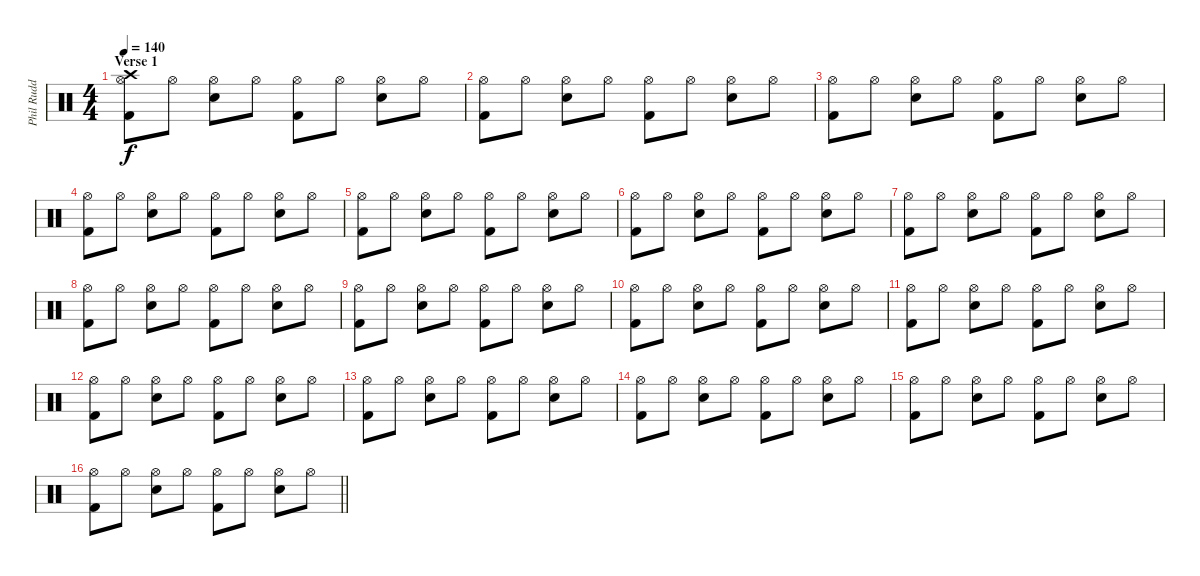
\track ("Phil Rudd" "Phil Rudd") {instrument percussion}
\staff {score}
\articulation defaults
\ts (4 4)
\section ("" "Verse 1")
\tempo 140
\clef neutral
\ks c
("Crash high (hit)" "Hi-Hat (open)" "Kick (hit) 2").8{dy f} "Hi-Hat (open)".8 ("Hi-Hat (open)" "Snare (hit) 2").8 "Hi-Hat (open)".8 ("Hi-Hat (open)" "Kick (hit) 2").8 "Hi-Hat (open)".8 ("Hi-Hat (open)" "Snare (hit) 2").8 "Hi-Hat (open)".8 |
("Hi-Hat (open)" "Kick (hit) 2").8 "Hi-Hat (open)".8 ("Hi-Hat (open)" "Snare (hit) 2").8 "Hi-Hat (open)".8 ("Hi-Hat (open)" "Kick (hit) 2").8 "Hi-Hat (open)".8 ("Hi-Hat (open)" "Snare (hit) 2").8 "Hi-Hat (open)".8 |
("Hi-Hat (open)" "Kick (hit) 2").8 "Hi-Hat (open)".8 ("Hi-Hat (open)" "Snare (hit) 2").8 "Hi-Hat (open)".8 ("Hi-Hat (open)" "Kick (hit) 2").8 "Hi-Hat (open)".8 ("Hi-Hat (open)" "Snare (hit) 2").8 "Hi-Hat (open)".8 |
("Hi-Hat (open)" "Kick (hit) 2").8 "Hi-Hat (open)".8 ("Hi-Hat (open)" "Snare (hit) 2").8 "Hi-Hat (open)".8 ("Hi-Hat (open)" "Kick (hit) 2").8 "Hi-Hat (open)".8 ("Hi-Hat (open)" "Snare (hit) 2").8 "Hi-Hat (open)".8 |
("Hi-Hat (open)" "Kick (hit) 2").8 "Hi-Hat (open)".8 ("Hi-Hat (open)" "Snare (hit) 2").8 "Hi-Hat (open)".8 ("Hi-Hat (open)" "Kick (hit) 2").8 "Hi-Hat (open)".8 ("Hi-Hat (open)" "Snare (hit) 2").8 "Hi-Hat (open)".8 |
("Hi-Hat (open)" "Kick (hit) 2").8 "Hi-Hat (open)".8 ("Hi-Hat (open)" "Snare (hit) 2").8 "Hi-Hat (open)".8 ("Hi-Hat (open)" "Kick (hit) 2").8 "Hi-Hat (open)".8 ("Hi-Hat (open)" "Snare (hit) 2").8 "Hi-Hat (open)".8 |
("Hi-Hat (open)" "Kick (hit) 2").8 "Hi-Hat (open)".8 ("Hi-Hat (open)" "Snare (hit) 2").8 "Hi-Hat (open)".8 ("Hi-Hat (open)" "Kick (hit) 2").8 "Hi-Hat (open)".8 ("Hi-Hat (open)" "Snare (hit) 2").8 "Hi-Hat (open)".8 |
("Hi-Hat (open)" "Kick (hit) 2").8 "Hi-Hat (open)".8 ("Hi-Hat (open)" "Snare (hit) 2").8 "Hi-Hat (open)".8 ("Hi-Hat (open)" "Kick (hit) 2").8 "Hi-Hat (open)".8 ("Hi-Hat (open)" "Snare (hit) 2").8 "Hi-Hat (open)".8 |
("Hi-Hat (open)" "Kick (hit) 2").8 "Hi-Hat (open)".8 ("Hi-Hat (open)" "Snare (hit) 2").8 "Hi-Hat (open)".8 ("Hi-Hat (open)" "Kick (hit) 2").8 "Hi-Hat (open)".8 ("Hi-Hat (open)" "Snare (hit) 2").8 "Hi-Hat (open)".8 |
("Hi-Hat (open)" "Kick (hit) 2").8 "Hi-Hat (open)".8 ("Hi-Hat (open)" "Snare (hit) 2").8 "Hi-Hat (open)".8 ("Hi-Hat (open)" "Kick (hit) 2").8 "Hi-Hat (open)".8 ("Hi-Hat (open)" "Snare (hit) 2").8 "Hi-Hat (open)".8 |
("Hi-Hat (open)" "Kick (hit) 2").8 "Hi-Hat (open)".8 ("Hi-Hat (open)" "Snare (hit) 2").8 "Hi-Hat (open)".8 ("Hi-Hat (open)" "Kick (hit) 2").8 "Hi-Hat (open)".8 ("Hi-Hat (open)" "Snare (hit) 2").8 "Hi-Hat (open)".8 |
("Hi-Hat (open)" "Kick (hit) 2").8 "Hi-Hat (open)".8 ("Hi-Hat (open)" "Snare (hit) 2").8 "Hi-Hat (open)".8 ("Hi-Hat (open)" "Kick (hit) 2").8 "Hi-Hat (open)".8 ("Hi-Hat (open)" "Snare (hit) 2").8 "Hi-Hat (open)".8 |
("Hi-Hat (open)" "Kick (hit) 2").8 "Hi-Hat (open)".8 ("Hi-Hat (open)" "Snare (hit) 2").8 "Hi-Hat (open)".8 ("Hi-Hat (open)" "Kick (hit) 2").8 "Hi-Hat (open)".8 ("Hi-Hat (open)" "Snare (hit) 2").8 "Hi-Hat (open)".8 |
("Hi-Hat (open)" "Kick (hit) 2").8 "Hi-Hat (open)".8 ("Hi-Hat (open)" "Snare (hit) 2").8 "Hi-Hat (open)".8 ("Hi-Hat (open)" "Kick (hit) 2").8 "Hi-Hat (open)".8 ("Hi-Hat (open)" "Snare (hit) 2").8 "Hi-Hat (open)".8 |
("Hi-Hat (open)" "Kick (hit) 2").8 "Hi-Hat (open)".8 ("Hi-Hat (open)" "Snare (hit) 2").8 "Hi-Hat (open)".8 ("Hi-Hat (open)" "Kick (hit) 2").8 "Hi-Hat (open)".8 ("Hi-Hat (open)" "Snare (hit) 2").8 "Hi-Hat (open)".8 |
\barLineRight lightlight
("Hi-Hat (open)" "Kick (hit) 2").8 "Hi-Hat (open)".8 ("Hi-Hat (open)" "Snare (hit) 2").8 "Hi-Hat (open)".8 ("Hi-Hat (open)" "Kick (hit) 2").8 "Hi-Hat (open)".8 ("Hi-Hat (open)" "Snare (hit) 2").8 "Hi-Hat (open)".8
